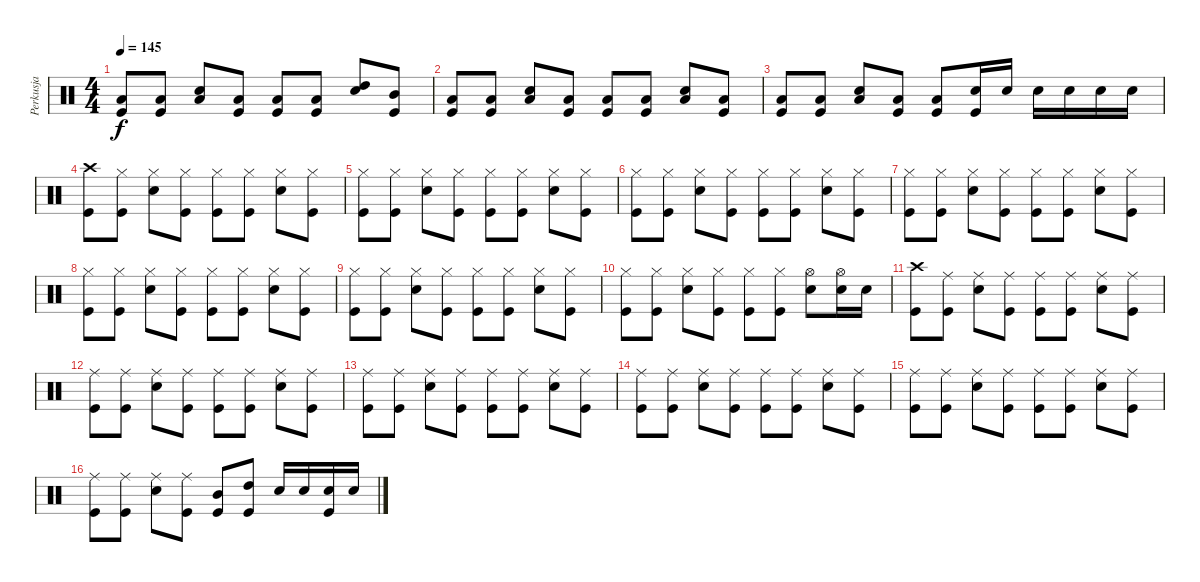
\track ("Perkusja" "Perkusja") {instrument percussion}
\staff {score}
\articulation defaults
\ts (4 4)
\tempo 145
\clef neutral
\ks c
("Low Floor Tom (hit)" "Kick (hit)").8{dy f} ("Low Floor Tom (hit)" "Kick (hit)").8 ("Low Floor Tom (hit)" "Snare (hit) 2").8 ("Low Floor Tom (hit)" "Kick (hit)").8 ("Low Floor Tom (hit)" "Kick (hit)").8 ("Low Floor Tom (hit)" "Kick (hit)").8 ("High Tom (hit)" "Snare (hit) 2").8 ("Mid Tom (hit)" "Kick (hit)").8 |
("Low Floor Tom (hit)" "Kick (hit)").8 ("Low Floor Tom (hit)" "Kick (hit)").8 ("Low Floor Tom (hit)" "Snare (hit) 2").8 ("Low Floor Tom (hit)" "Kick (hit)").8 ("Low Floor Tom (hit)" "Kick (hit)").8 ("Low Floor Tom (hit)" "Kick (hit)").8 ("Low Floor Tom (hit)" "Snare (hit) 2").8 ("Low Floor Tom (hit)" "Kick (hit)").8 |
("Low Floor Tom (hit)" "Kick (hit)").8 ("Low Floor Tom (hit)" "Kick (hit)").8 ("Low Floor Tom (hit)" "Snare (hit) 2").8 ("Low Floor Tom (hit)" "Kick (hit)").8 ("Low Floor Tom (hit)" "Kick (hit)").8 ("Snare (hit) 2" "Kick (hit)").16 "Snare (hit) 2".16 "Snare (hit) 2".16 "Snare (hit) 2".16 "Snare (hit) 2".16 "Snare (hit) 2".16 |
("Crash high (hit)" "Kick (hit)").8 ("Hi-Hat (closed)" "Kick (hit)").8 ("Hi-Hat (closed)" "Snare (hit) 2").8 ("Hi-Hat (closed)" "Kick (hit)").8 ("Hi-Hat (closed)" "Kick (hit)").8 ("Hi-Hat (closed)" "Kick (hit)").8 ("Hi-Hat (closed)" "Snare (hit) 2").8 ("Hi-Hat (closed)" "Kick (hit)").8 |
("Hi-Hat (closed)" "Kick (hit)").8 ("Hi-Hat (closed)" "Kick (hit)").8 ("Hi-Hat (closed)" "Snare (hit) 2").8 ("Hi-Hat (closed)" "Kick (hit)").8 ("Hi-Hat (closed)" "Kick (hit)").8 ("Hi-Hat (closed)" "Kick (hit)").8 ("Hi-Hat (closed)" "Snare (hit) 2").8 ("Hi-Hat (closed)" "Kick (hit)").8 |
("Hi-Hat (closed)" "Kick (hit)").8 ("Hi-Hat (closed)" "Kick (hit)").8 ("Hi-Hat (closed)" "Snare (hit) 2").8 ("Hi-Hat (closed)" "Kick (hit)").8 ("Hi-Hat (closed)" "Kick (hit)").8 ("Hi-Hat (closed)" "Kick (hit)").8 ("Hi-Hat (closed)" "Snare (hit) 2").8 ("Hi-Hat (closed)" "Kick (hit)").8 |
("Hi-Hat (closed)" "Kick (hit)").8 ("Hi-Hat (closed)" "Kick (hit)").8 ("Hi-Hat (closed)" "Snare (hit) 2").8 ("Hi-Hat (closed)" "Kick (hit)").8 ("Hi-Hat (closed)" "Kick (hit)").8 ("Hi-Hat (closed)" "Kick (hit)").8 ("Hi-Hat (closed)" "Snare (hit) 2").8 ("Hi-Hat (closed)" "Kick (hit)").8 |
("Hi-Hat (closed)" "Kick (hit)").8 ("Hi-Hat (closed)" "Kick (hit)").8 ("Hi-Hat (closed)" "Snare (hit) 2").8 ("Hi-Hat (closed)" "Kick (hit)").8 ("Hi-Hat (closed)" "Kick (hit)").8 ("Hi-Hat (closed)" "Kick (hit)").8 ("Hi-Hat (closed)" "Snare (hit) 2").8 ("Hi-Hat (closed)" "Kick (hit)").8 |
("Hi-Hat (closed)" "Kick (hit)").8 ("Hi-Hat (closed)" "Kick (hit)").8 ("Hi-Hat (closed)" "Snare (hit) 2").8 ("Hi-Hat (closed)" "Kick (hit)").8 ("Hi-Hat (closed)" "Kick (hit)").8 ("Hi-Hat (closed)" "Kick (hit)").8 ("Hi-Hat (closed)" "Snare (hit) 2").8 ("Hi-Hat (closed)" "Kick (hit)").8 |
("Hi-Hat (closed)" "Kick (hit)").8 ("Hi-Hat (closed)" "Kick (hit)").8 ("Hi-Hat (closed)" "Snare (hit) 2").8 ("Hi-Hat (closed)" "Kick (hit)").8 ("Hi-Hat (closed)" "Kick (hit)").8 ("Hi-Hat (closed)" "Kick (hit)").8 ("Hi-Hat (open)" "Snare (hit) 2").8 ("Hi-Hat (open)" "Snare (hit) 2").16 "Snare (hit) 2".16 |
("Crash high (hit)" "Kick (hit)").8 ("Ride (middle)" "Kick (hit)").8 ("Ride (middle)" "Snare (hit) 2").8 ("Ride (middle)" "Kick (hit)").8 ("Ride (middle)" "Kick (hit)").8 ("Ride (middle)" "Kick (hit)").8 ("Ride (middle)" "Snare (hit) 2").8 ("Ride (middle)" "Kick (hit)").8 |
("Ride (middle)" "Kick (hit)").8 ("Ride (middle)" "Kick (hit)").8 ("Ride (middle)" "Snare (hit) 2").8 ("Ride (middle)" "Kick (hit)").8 ("Ride (middle)" "Kick (hit)").8 ("Ride (middle)" "Kick (hit)").8 ("Ride (middle)" "Snare (hit) 2").8 ("Ride (middle)" "Kick (hit)").8 |
("Ride (middle)" "Kick (hit)").8 ("Ride (middle)" "Kick (hit)").8 ("Ride (middle)" "Snare (hit) 2").8 ("Ride (middle)" "Kick (hit)").8 ("Ride (middle)" "Kick (hit)").8 ("Ride (middle)" "Kick (hit)").8 ("Ride (middle)" "Snare (hit) 2").8 ("Ride (middle)" "Kick (hit)").8 |
("Ride (middle)" "Kick (hit)").8 ("Ride (middle)" "Kick (hit)").8 ("Ride (middle)" "Snare (hit) 2").8 ("Ride (middle)" "Kick (hit)").8 ("Ride (middle)" "Kick (hit)").8 ("Ride (middle)" "Kick (hit)").8 ("Ride (middle)" "Snare (hit) 2").8 ("Ride (middle)" "Kick (hit)").8 |
("Ride (middle)" "Kick (hit)").8 ("Ride (middle)" "Kick (hit)").8 ("Ride (middle)" "Snare (hit) 2").8 ("Ride (middle)" "Kick (hit)").8 ("Ride (middle)" "Kick (hit)").8 ("Ride (middle)" "Kick (hit)").8 ("Ride (middle)" "Snare (hit) 2").8 ("Ride (middle)" "Kick (hit)").8 |
("Ride (middle)" "Kick (hit)").8 ("Ride (middle)" "Kick (hit)").8 ("Ride (middle)" "Snare (hit) 2").8 ("Ride (middle)" "Kick (hit)").8 ("Mid Tom (hit)" "Kick (hit)").8 ("High Tom (hit)" "Kick (hit)").8 "Snare (hit) 2".16 "Snare (hit) 2".16 ("Snare (hit) 2" "Kick (hit)").16 "Snare (hit) 2".16
